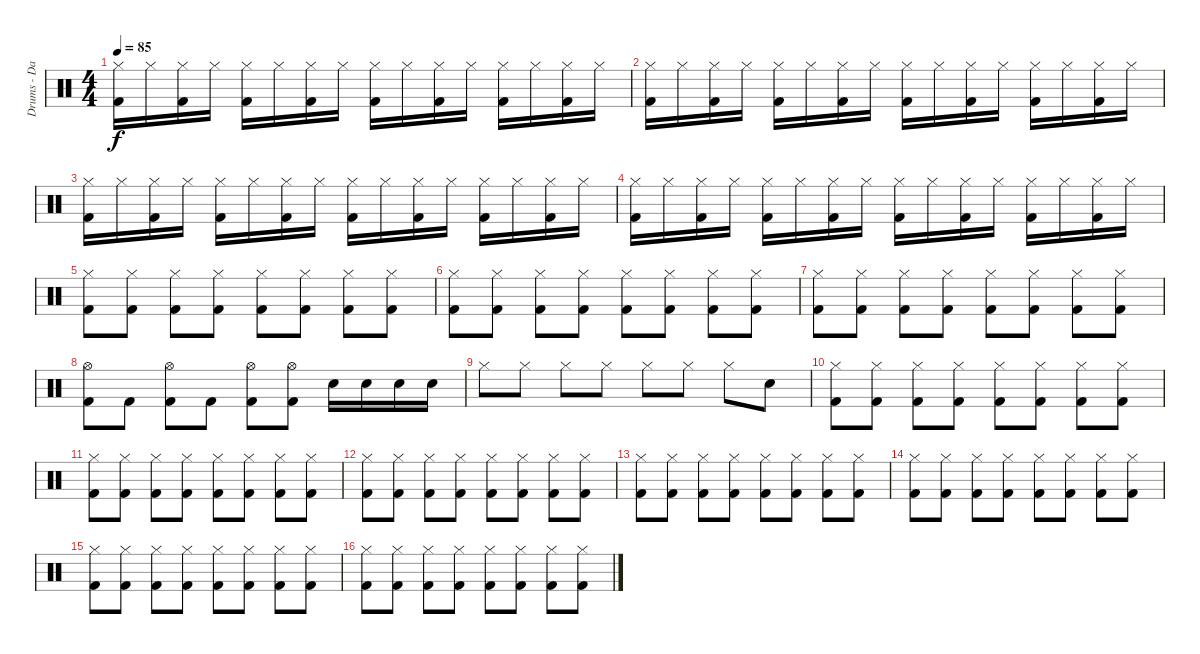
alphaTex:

\track ("Drums - Daniel Zimmermann" "Drums - Da") {instrument percussion}
\staff {score}
\articulation defaults
\ts (4 4)
\tempo 85
\clef neutral
\ks c
("Hi-Hat (closed)" "Kick (hit) 2").16{dy f} "Hi-Hat (closed)".16 ("Hi-Hat (closed)" "Kick (hit) 2").16 "Hi-Hat (closed)".16 ("Hi-Hat (closed)" "Kick (hit) 2").16 "Hi-Hat (closed)".16 ("Hi-Hat (closed)" "Kick (hit) 2").16 "Hi-Hat (closed)".16 ("Hi-Hat (closed)" "Kick (hit) 2").16 "Hi-Hat (closed)".16 ("Hi-Hat (closed)" "Kick (hit) 2").16 "Hi-Hat (closed)".16 ("Hi-Hat (closed)" "Kick (hit) 2").16 "Hi-Hat (closed)".16 ("Hi-Hat (closed)" "Kick (hit) 2").16 "Hi-Hat (closed)".16 |
("Hi-Hat (closed)" "Kick (hit) 2").16 "Hi-Hat (closed)".16 ("Hi-Hat (closed)" "Kick (hit) 2").16 "Hi-Hat (closed)".16 ("Hi-Hat (closed)" "Kick (hit) 2").16 "Hi-Hat (closed)".16 ("Hi-Hat (closed)" "Kick (hit) 2").16 "Hi-Hat (closed)".16 ("Hi-Hat (closed)" "Kick (hit) 2").16 "Hi-Hat (closed)".16 ("Hi-Hat (closed)" "Kick (hit) 2").16 "Hi-Hat (closed)".16 ("Hi-Hat (closed)" "Kick (hit) 2").16 "Hi-Hat (closed)".16 ("Hi-Hat (closed)" "Kick (hit) 2").16 "Hi-Hat (closed)".16 |
("Hi-Hat (closed)" "Kick (hit) 2").16 "Hi-Hat (closed)".16 ("Hi-Hat (closed)" "Kick (hit) 2").16 "Hi-Hat (closed)".16 ("Hi-Hat (closed)" "Kick (hit) 2").16 "Hi-Hat (closed)".16 ("Hi-Hat (closed)" "Kick (hit) 2").16 "Hi-Hat (closed)".16 ("Hi-Hat (closed)" "Kick (hit) 2").16 "Hi-Hat (closed)".16 ("Hi-Hat (closed)" "Kick (hit) 2").16 "Hi-Hat (closed)".16 ("Hi-Hat (closed)" "Kick (hit) 2").16 "Hi-Hat (closed)".16 ("Hi-Hat (closed)" "Kick (hit) 2").16 "Hi-Hat (closed)".16 |
("Hi-Hat (closed)" "Kick (hit) 2").16 "Hi-Hat (closed)".16 ("Hi-Hat (closed)" "Kick (hit) 2").16 "Hi-Hat (closed)".16 ("Hi-Hat (closed)" "Kick (hit) 2").16 "Hi-Hat (closed)".16 ("Hi-Hat (closed)" "Kick (hit) 2").16 "Hi-Hat (closed)".16 ("Hi-Hat (closed)" "Kick (hit) 2").16 "Hi-Hat (closed)".16 ("Hi-Hat (closed)" "Kick (hit) 2").16 "Hi-Hat (closed)".16 ("Hi-Hat (closed)" "Kick (hit) 2").16 "Hi-Hat (closed)".16 ("Hi-Hat (closed)" "Kick (hit) 2").16 "Hi-Hat (closed)".16 |
("Hi-Hat (closed)" "Kick (hit) 2").8 ("Hi-Hat (closed)" "Kick (hit) 2").8 ("Hi-Hat (closed)" "Kick (hit) 2").8 ("Hi-Hat (closed)" "Kick (hit) 2").8 ("Hi-Hat (closed)" "Kick (hit) 2").8 ("Hi-Hat (closed)" "Kick (hit) 2").8 ("Hi-Hat (closed)" "Kick (hit) 2").8 ("Hi-Hat (closed)" "Kick (hit) 2").8 |
("Hi-Hat (closed)" "Kick (hit) 2").8 ("Hi-Hat (closed)" "Kick (hit) 2").8 ("Hi-Hat (closed)" "Kick (hit) 2").8 ("Hi-Hat (closed)" "Kick (hit) 2").8 ("Hi-Hat (closed)" "Kick (hit) 2").8 ("Hi-Hat (closed)" "Kick (hit) 2").8 ("Hi-Hat (closed)" "Kick (hit) 2").8 ("Hi-Hat (closed)" "Kick (hit) 2").8 |
("Hi-Hat (closed)" "Kick (hit) 2").8 ("Hi-Hat (closed)" "Kick (hit) 2").8 ("Hi-Hat (closed)" "Kick (hit) 2").8 ("Hi-Hat (closed)" "Kick (hit) 2").8 ("Hi-Hat (closed)" "Kick (hit) 2").8 ("Hi-Hat (closed)" "Kick (hit) 2").8 ("Hi-Hat (closed)" "Kick (hit) 2").8 ("Hi-Hat (closed)" "Kick (hit) 2").8 |
("Hi-Hat (open)" "Kick (hit) 2").8 "Kick (hit) 2".8 ("Hi-Hat (open)" "Kick (hit) 2").8 "Kick (hit) 2".8 ("Hi-Hat (open)" "Kick (hit) 2").8 ("Hi-Hat (open)" "Kick (hit) 2").8 "Snare (hit) 2".16 "Snare (hit) 2".16 "Snare (hit) 2".16 "Snare (hit) 2".16 |
"Hi-Hat (closed)".8 "Hi-Hat (closed)".8 "Hi-Hat (closed)".8 "Hi-Hat (closed)".8 "Hi-Hat (closed)".8 "Hi-Hat (closed)".8 "Hi-Hat (closed)".8 "Snare (hit) 2".8 |
("Hi-Hat (closed)" "Kick (hit) 2").8 ("Hi-Hat (closed)" "Kick (hit) 2").8 ("Hi-Hat (closed)" "Kick (hit) 2").8 ("Hi-Hat (closed)" "Kick (hit) 2").8 ("Hi-Hat (closed)" "Kick (hit) 2").8 ("Hi-Hat (closed)" "Kick (hit) 2").8 ("Hi-Hat (closed)" "Kick (hit) 2").8 ("Hi-Hat (closed)" "Kick (hit) 2").8 |
("Hi-Hat (closed)" "Kick (hit) 2").8 ("Hi-Hat (closed)" "Kick (hit) 2").8 ("Hi-Hat (closed)" "Kick (hit) 2").8 ("Hi-Hat (closed)" "Kick (hit) 2").8 ("Hi-Hat (closed)" "Kick (hit) 2").8 ("Hi-Hat (closed)" "Kick (hit) 2").8 ("Hi-Hat (closed)" "Kick (hit) 2").8 ("Hi-Hat (closed)" "Kick (hit) 2").8 |
("Hi-Hat (closed)" "Kick (hit) 2").8 ("Hi-Hat (closed)" "Kick (hit) 2").8 ("Hi-Hat (closed)" "Kick (hit) 2").8 ("Hi-Hat (closed)" "Kick (hit) 2").8 ("Hi-Hat (closed)" "Kick (hit) 2").8 ("Hi-Hat (closed)" "Kick (hit) 2").8 ("Hi-Hat (closed)" "Kick (hit) 2").8 ("Hi-Hat (closed)" "Kick (hit) 2").8 |
("Hi-Hat (closed)" "Kick (hit) 2").8 ("Hi-Hat (closed)" "Kick (hit) 2").8 ("Hi-Hat (closed)" "Kick (hit) 2").8 ("Hi-Hat (closed)" "Kick (hit) 2").8 ("Hi-Hat (closed)" "Kick (hit) 2").8 ("Hi-Hat (closed)" "Kick (hit) 2").8 ("Hi-Hat (closed)" "Kick (hit) 2").8 ("Hi-Hat (closed)" "Kick (hit) 2").8 |
("Hi-Hat (closed)" "Kick (hit) 2").8 ("Hi-Hat (closed)" "Kick (hit) 2").8 ("Hi-Hat (closed)" "Kick (hit) 2").8 ("Hi-Hat (closed)" "Kick (hit) 2").8 ("Hi-Hat (closed)" "Kick (hit) 2").8 ("Hi-Hat (closed)" "Kick (hit) 2").8 ("Hi-Hat (closed)" "Kick (hit) 2").8 ("Hi-Hat (closed)" "Kick (hit) 2").8 |
("Hi-Hat (closed)" "Kick (hit) 2").8 ("Hi-Hat (closed)" "Kick (hit) 2").8 ("Hi-Hat (closed)" "Kick (hit) 2").8 ("Hi-Hat (closed)" "Kick (hit) 2").8 ("Hi-Hat (closed)" "Kick (hit) 2").8 ("Hi-Hat (closed)" "Kick (hit) 2").8 ("Hi-Hat (closed)" "Kick (hit) 2").8 ("Hi-Hat (closed)" "Kick (hit) 2").8 |
("Hi-Hat (closed)" "Kick (hit) 2").8 ("Hi-Hat (closed)" "Kick (hit) 2").8 ("Hi-Hat (closed)" "Kick (hit) 2").8 ("Hi-Hat (closed)" "Kick (hit) 2").8 ("Hi-Hat (closed)" "Kick (hit) 2").8 ("Hi-Hat (closed)" "Kick (hit) 2").8 ("Hi-Hat (closed)" "Kick (hit) 2").8 ("Hi-Hat (closed)" "Kick (hit) 2").8
